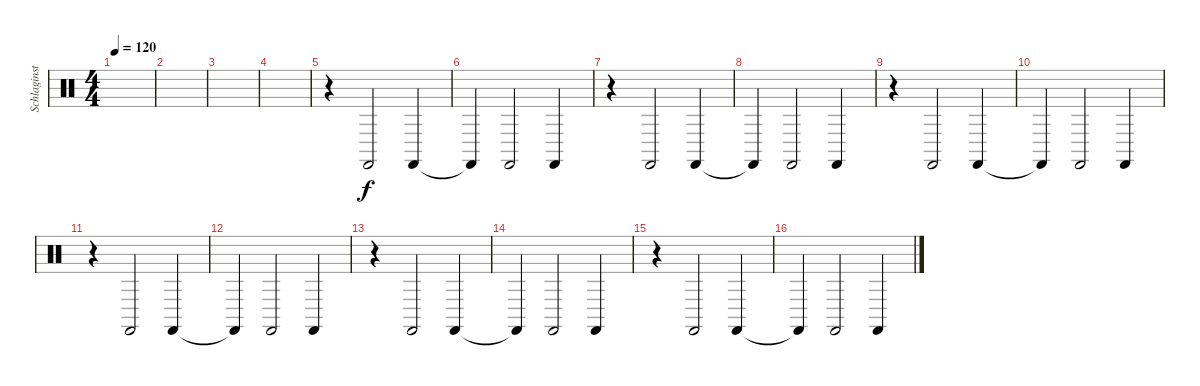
\track ("Schlaginstrumente - Auswahl" "Schlaginst") {instrument percussion}
\staff {score}
\articulation defaults
\ts (4 4)
\tempo 120
\clef neutral
\ks c
|
|
|
|
r.4 "Castanets (hit)".2 "Castanets (hit)".4 |
"Castanets (hit)"{t}.4 "Castanets (hit)".2 "Castanets (hit)".4 |
r.4 "Castanets (hit)".2 "Castanets (hit)".4 |
"Castanets (hit)"{t}.4 "Castanets (hit)".2 "Castanets (hit)".4 |
r.4 "Castanets (hit)".2 "Castanets (hit)".4 |
"Castanets (hit)"{t}.4 "Castanets (hit)".2 "Castanets (hit)".4 |
r.4 "Castanets (hit)".2 "Castanets (hit)".4 |
"Castanets (hit)"{t}.4 "Castanets (hit)".2 "Castanets (hit)".4 |
r.4 "Castanets (hit)".2 "Castanets (hit)".4 |
"Castanets (hit)"{t}.4 "Castanets (hit)".2 "Castanets (hit)".4 |
r.4 "Castanets (hit)".2 "Castanets (hit)".4 |
"Castanets (hit)"{t}.4 "Castanets (hit)".2 "Castanets (hit)".4
